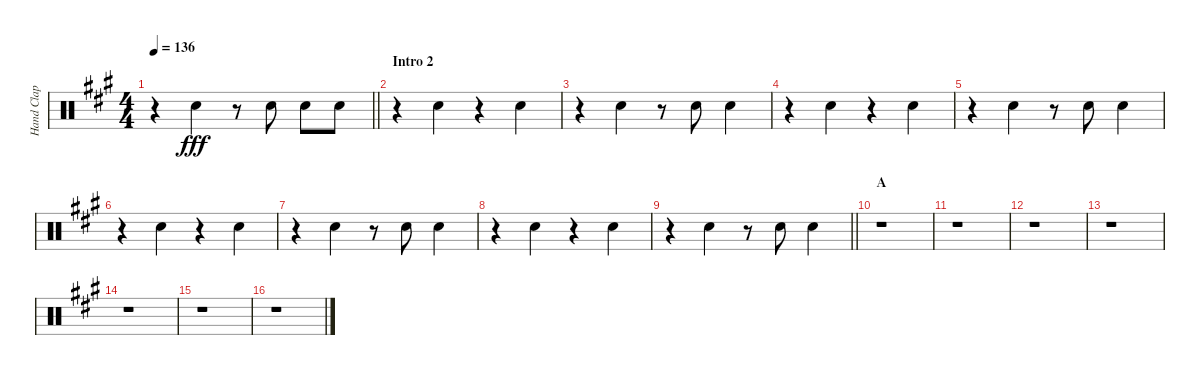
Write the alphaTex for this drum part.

\track ("Hand Clap" "Hand Clap") {instrument percussion}
\staff {score}
\articulation defaults
\ts (4 4)
\tempo 136
\clef neutral
\barLineRight lightlight
\ks a
r.4{dy fff} "Hand Clap (hit)".4 r.8 "Hand Clap (hit)".8 "Hand Clap (hit)".8 "Hand Clap (hit)".8 |
\section ("" "Intro 2")
r.4 "Hand Clap (hit)".4 r.4 "Hand Clap (hit)".4 |
r.4 "Hand Clap (hit)".4 r.8 "Hand Clap (hit)".8 "Hand Clap (hit)".4 |
r.4 "Hand Clap (hit)".4 r.4 "Hand Clap (hit)".4 |
r.4 "Hand Clap (hit)".4 r.8 "Hand Clap (hit)".8 "Hand Clap (hit)".4 |
r.4 "Hand Clap (hit)".4 r.4 "Hand Clap (hit)".4 |
r.4 "Hand Clap (hit)".4 r.8 "Hand Clap (hit)".8 "Hand Clap (hit)".4 |
r.4 "Hand Clap (hit)".4 r.4 "Hand Clap (hit)".4 |
\barLineRight lightlight
r.4 "Hand Clap (hit)".4 r.8 "Hand Clap (hit)".8 "Hand Clap (hit)".4 |
\section ("" "A")
r.1 |
r.1 |
r.1 |
r.1 |
r.1 |
r.1 |
r.1
